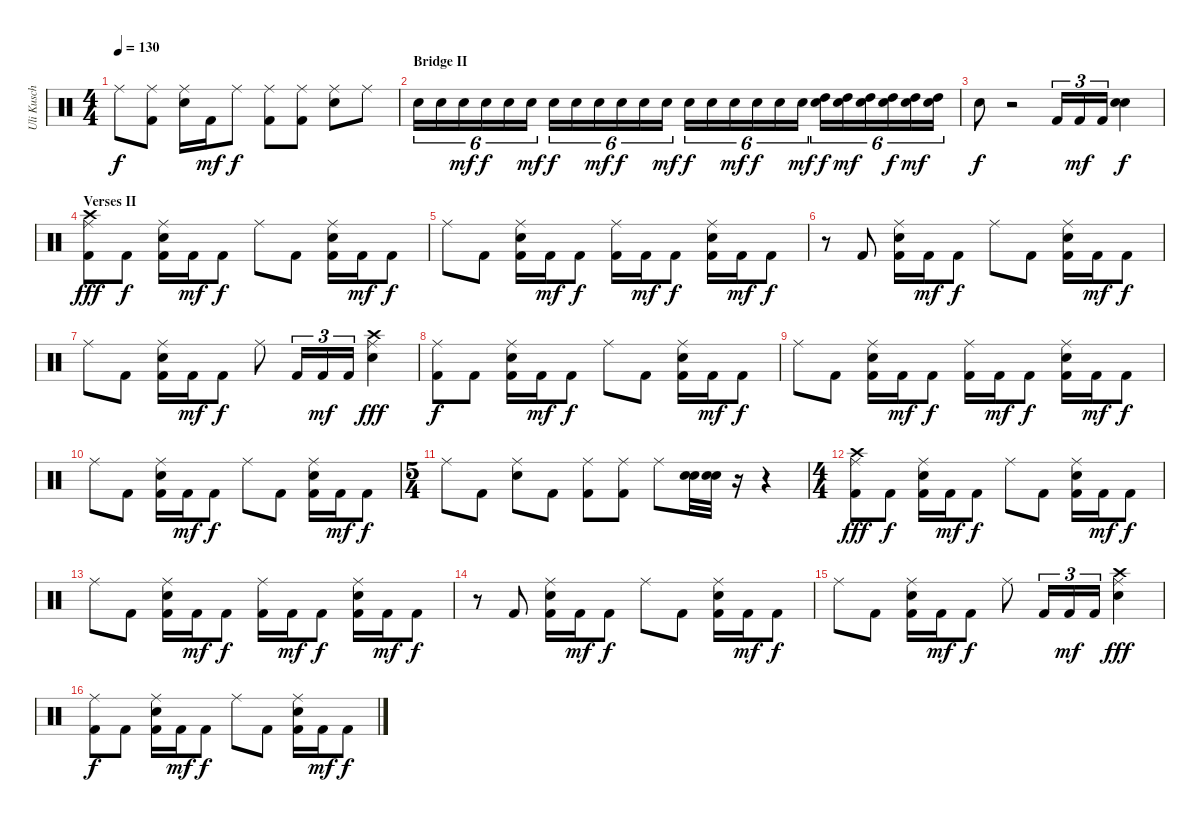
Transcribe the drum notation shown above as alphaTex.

\track ("Uli Kusch" "Uli Kusch") {instrument percussion}
\staff {score}
\articulation defaults
\ts (4 4)
\tempo 130
\clef neutral
\ks c "Ride (middle)".8{dy f}
("Kick (hit) 2" "Ride (middle)").8 ("Electric Snare (hit)" "Ride (middle)").16 "Kick (hit) 2".16{dy mf} "Ride (middle)".8{dy f} ("Kick (hit) 2" "Ride (middle)").8 ("Kick (hit) 2" "Ride (middle)").8 ("Electric Snare (hit)" "Ride (middle)").8 "Ride (middle)".8 |
\section ("" "Bridge II")
"Electric Snare (hit)".16{tu (6 4)} "Snare (hit) 2".16{tu (6 4)} "Snare (hit) 2".16{tu (6 4) dy mf} "Snare (hit) 2".16{tu (6 4) dy f} "Snare (hit) 2".16{tu (6 4)} "Snare (hit) 2".16{tu (6 4) dy mf} "Snare (hit) 2".16{tu (6 4) dy f} "Snare (hit) 2".16{tu (6 4)} "Snare (hit) 2".16{tu (6 4) dy mf} "Electric Snare (hit)".16{tu (6 4) dy f} "Snare (hit) 2".16{tu (6 4)} "Snare (hit) 2".16{tu (6 4) dy mf} "Snare (hit) 2".16{tu (6 4) dy f} "Snare (hit) 2".16{tu (6 4)} "Snare (hit) 2".16{tu (6 4) dy mf} "Electric Snare (hit)".16{tu (6 4) dy f} "Electric Snare (hit)".16{tu (6 4)} "Electric Snare (hit)".16{tu (6 4) dy mf} ("High Tom (hit)" "Electric Snare (hit)").16{tu (6 4) dy f} ("Electric Snare (hit)" "High Tom (hit)").16{tu (6 4) dy mf} ("High Tom (hit)" "Electric Snare (hit)").16{tu (6 4)} ("High Tom (hit)" "Electric Snare (hit)").16{tu (6 4) dy f} ("Electric Snare (hit)" "High Tom (hit)").16{tu (6 4) dy mf} ("High Tom (hit)" "Electric Snare (hit)").16{tu (6 4)} |
"Electric Snare (hit)".8{dy f} r.2 "Kick (hit) 2".16{tu (3 2)} "Kick (hit) 2".16{tu (3 2) dy mf} "Kick (hit) 2".16{tu (3 2)} ("Snare (hit) 2" "Electric Snare (hit)").4{dy f} |
\section ("" "Verses II")
("Ride (middle)" "Crash high (hit)" "Kick (hit) 2").8{dy fff} "Kick (hit) 2".8{dy f} ("Kick (hit) 2" "Electric Snare (hit)" "Ride (middle)").16 "Kick (hit) 2".16{dy mf} "Kick (hit) 2".8{dy f} "Ride (middle)".8 "Kick (hit) 2".8 ("Kick (hit) 2" "Electric Snare (hit)" "Ride (middle)").16 "Kick (hit) 2".16{dy mf} "Kick (hit) 2".8{dy f} |
"Ride (middle)".8 "Kick (hit) 2".8 ("Kick (hit) 2" "Electric Snare (hit)" "Ride (middle)").16 "Kick (hit) 2".16{dy mf} "Kick (hit) 2".8{dy f} ("Kick (hit) 2" "Ride (middle)").16 "Kick (hit) 2".16{dy mf} "Kick (hit) 2".8{dy f} ("Kick (hit) 2" "Electric Snare (hit)" "Ride (middle)").16 "Kick (hit) 2".16{dy mf} "Kick (hit) 2".8{dy f} |
r.8 "Kick (hit) 2".8 ("Ride (middle)" "Electric Snare (hit)" "Kick (hit) 2").16 "Kick (hit) 2".16{dy mf} "Kick (hit) 2".8{dy f} "Ride (middle)".8 "Kick (hit) 2".8 ("Ride (middle)" "Electric Snare (hit)" "Kick (hit) 2").16 "Kick (hit) 2".16{dy mf} "Kick (hit) 2".8{dy f} |
"Ride (middle)".8 "Kick (hit) 2".8 ("Ride (middle)" "Electric Snare (hit)" "Kick (hit) 2").16 "Kick (hit) 2".16{dy mf} "Kick (hit) 2".8{dy f} "Ride (middle)".8 "Kick (hit) 2".16{tu (3 2)} "Kick (hit) 2".16{tu (3 2) dy mf} "Kick (hit) 2".16{tu (3 2)} ("Electric Snare (hit)" "Crash high (hit)" "Ride (middle)").4{dy fff} |
("Ride (middle)" "Kick (hit) 2").8{dy f} "Kick (hit) 2".8 ("Ride (middle)" "Electric Snare (hit)" "Kick (hit) 2").16 "Kick (hit) 2".16{dy mf} "Kick (hit) 2".8{dy f} "Ride (middle)".8 "Kick (hit) 2".8 ("Ride (middle)" "Electric Snare (hit)" "Kick (hit) 2").16 "Kick (hit) 2".16{dy mf} "Kick (hit) 2".8{dy f} |
"Ride (middle)".8 "Kick (hit) 2".8 ("Kick (hit) 2" "Electric Snare (hit)" "Ride (middle)").16 "Kick (hit) 2".16{dy mf} "Kick (hit) 2".8{dy f} ("Kick (hit) 2" "Ride (middle)").16 "Kick (hit) 2".16{dy mf} "Kick (hit) 2".8{dy f} ("Kick (hit) 2" "Electric Snare (hit)" "Ride (middle)").16 "Kick (hit) 2".16{dy mf} "Kick (hit) 2".8{dy f} |
"Ride (middle)".8 "Kick (hit) 2".8 ("Ride (middle)" "Electric Snare (hit)" "Kick (hit) 2").16 "Kick (hit) 2".16{dy mf} "Kick (hit) 2".8{dy f} "Ride (middle)".8 "Kick (hit) 2".8 ("Ride (middle)" "Electric Snare (hit)" "Kick (hit) 2").16 "Kick (hit) 2".16{dy mf} "Kick (hit) 2".8{dy f} |
\ts (5 4)
"Ride (middle)".8 "Kick (hit) 2".8 ("Electric Snare (hit)" "Ride (middle)").8 "Kick (hit) 2".8 ("Kick (hit) 2" "Ride (middle)").8 ("Kick (hit) 2" "Ride (middle)").8 "Ride (middle)".8 ("Electric Snare (hit)" "Snare (hit) 2").32 ("Electric Snare (hit)" "Snare (hit) 2").32 r.16 r.4 |
\ts (4 4)
("Ride (middle)" "Crash high (hit)" "Kick (hit) 2").8{dy fff} "Kick (hit) 2".8{dy f} ("Kick (hit) 2" "Electric Snare (hit)" "Ride (middle)").16 "Kick (hit) 2".16{dy mf} "Kick (hit) 2".8{dy f} "Ride (middle)".8 "Kick (hit) 2".8 ("Kick (hit) 2" "Electric Snare (hit)" "Ride (middle)").16 "Kick (hit) 2".16{dy mf} "Kick (hit) 2".8{dy f} |
"Ride (middle)".8 "Kick (hit) 2".8 ("Kick (hit) 2" "Electric Snare (hit)" "Ride (middle)").16 "Kick (hit) 2".16{dy mf} "Kick (hit) 2".8{dy f} ("Kick (hit) 2" "Ride (middle)").16 "Kick (hit) 2".16{dy mf} "Kick (hit) 2".8{dy f} ("Kick (hit) 2" "Electric Snare (hit)" "Ride (middle)").16 "Kick (hit) 2".16{dy mf} "Kick (hit) 2".8{dy f} |
r.8 "Kick (hit) 2".8 ("Ride (middle)" "Electric Snare (hit)" "Kick (hit) 2").16 "Kick (hit) 2".16{dy mf} "Kick (hit) 2".8{dy f} "Ride (middle)".8 "Kick (hit) 2".8 ("Ride (middle)" "Electric Snare (hit)" "Kick (hit) 2").16 "Kick (hit) 2".16{dy mf} "Kick (hit) 2".8{dy f} |
"Ride (middle)".8 "Kick (hit) 2".8 ("Ride (middle)" "Electric Snare (hit)" "Kick (hit) 2").16 "Kick (hit) 2".16{dy mf} "Kick (hit) 2".8{dy f} "Ride (middle)".8 "Kick (hit) 2".16{tu (3 2)} "Kick (hit) 2".16{tu (3 2) dy mf} "Kick (hit) 2".16{tu (3 2)} ("Electric Snare (hit)" "Crash high (hit)" "Ride (middle)").4{dy fff} |
("Ride (middle)" "Kick (hit) 2").8{dy f} "Kick (hit) 2".8 ("Ride (middle)" "Electric Snare (hit)" "Kick (hit) 2").16 "Kick (hit) 2".16{dy mf} "Kick (hit) 2".8{dy f} "Ride (middle)".8 "Kick (hit) 2".8 ("Ride (middle)" "Electric Snare (hit)" "Kick (hit) 2").16 "Kick (hit) 2".16{dy mf} "Kick (hit) 2".8{dy f}
